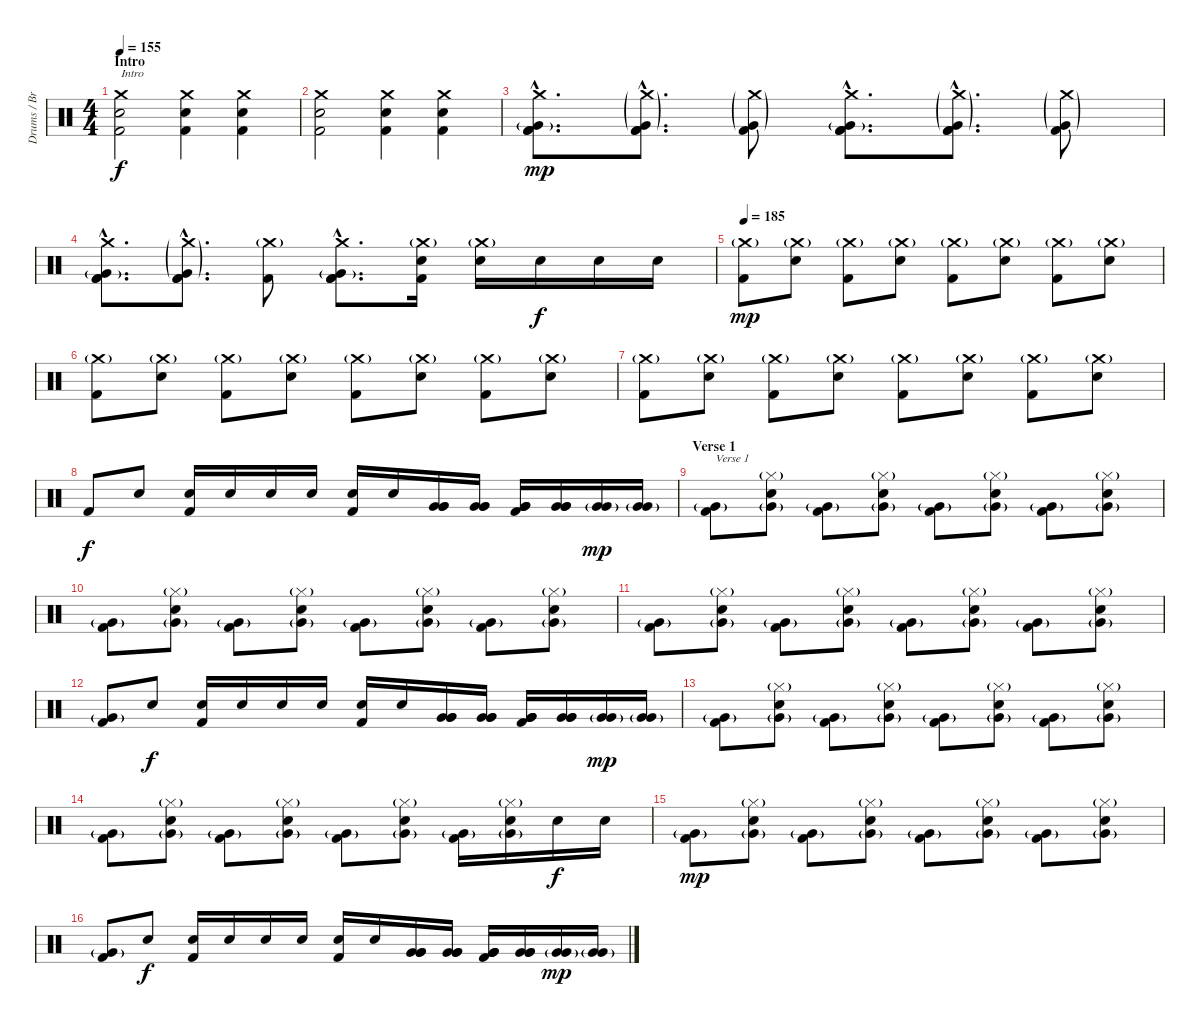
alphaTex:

\track ("Drums / Brett" "Drums / Br") {instrument percussion}
\staff {score}
\articulation defaults
\ts (4 4)
\section ("" "Intro")
\tempo 155
\clef neutral
\ks c
("Crash medium (hit)" "Snare (hit) 2" "Kick (hit) 2").2{txt "Intro" dy f} ("Crash medium (hit)" "Snare (hit) 2" "Kick (hit) 2").4 ("Crash medium (hit)" "Snare (hit) 2" "Kick (hit) 2").4 |
("Crash medium (hit)" "Snare (hit) 2" "Kick (hit) 2").2 ("Crash medium (hit)" "Snare (hit) 2" "Kick (hit) 2").4 ("Crash medium (hit)" "Snare (hit) 2" "Kick (hit) 2").4 |
("Crash medium (hit)"{hac} "Very Low Tom (hit)"{g hac} "Kick (hit) 2"{hac} "Kick (hit) 2"{hac}).8{d dy mp} ("Crash medium (hit)"{g hac} "Very Low Tom (hit)"{g hac} "Kick (hit) 2"{hac} "Kick (hit) 2"{hac}).8{d} ("Crash medium (hit)"{g} "Very Low Tom (hit)"{g} "Kick (hit) 2").8 ("Crash medium (hit)"{hac} "Very Low Tom (hit)"{g hac} "Kick (hit) 2"{hac} "Kick (hit) 2"{hac}).8{d} ("Crash medium (hit)"{g hac} "Very Low Tom (hit)"{g hac} "Kick (hit) 2"{hac} "Kick (hit) 2"{hac}).8{d} ("Crash medium (hit)"{g} "Very Low Tom (hit)"{g} "Kick (hit) 2").8 |
("Crash medium (hit)"{hac} "Very Low Tom (hit)"{g hac} "Kick (hit) 2"{hac} "Kick (hit) 2"{hac}).8{d} ("Crash medium (hit)"{g hac} "Very Low Tom (hit)"{g hac} "Kick (hit) 2"{hac} "Kick (hit) 2"{hac}).8{d} ("Crash medium (hit)"{g} "Kick (hit) 2").8 ("Crash medium (hit)"{hac} "Very Low Tom (hit)"{g hac} "Kick (hit) 2"{hac} "Kick (hit) 2"{hac}).8{d} ("Crash medium (hit)"{g} "Snare (hit) 2" "Kick (hit) 2").16 ("Crash medium (hit)"{g} "Snare (hit) 2").16 "Snare (hit) 2".16{dy f} "Snare (hit) 2".16 "Snare (hit) 2".16 |
\tempo 185
("Crash medium (hit)"{g} "Kick (hit) 2").8{dy mp} ("Crash medium (hit)"{g} "Snare (hit) 2").8 ("Crash medium (hit)"{g} "Kick (hit) 2").8 ("Crash medium (hit)"{g} "Snare (hit) 2").8 ("Crash medium (hit)"{g} "Kick (hit) 2").8 ("Crash medium (hit)"{g} "Snare (hit) 2").8 ("Crash medium (hit)"{g} "Kick (hit) 2").8 ("Crash medium (hit)"{g} "Snare (hit) 2").8 |
("Crash medium (hit)"{g} "Kick (hit) 2").8 ("Crash medium (hit)"{g} "Snare (hit) 2").8 ("Crash medium (hit)"{g} "Kick (hit) 2").8 ("Crash medium (hit)"{g} "Snare (hit) 2").8 ("Crash medium (hit)"{g} "Kick (hit) 2").8 ("Crash medium (hit)"{g} "Snare (hit) 2").8 ("Crash medium (hit)"{g} "Kick (hit) 2").8 ("Crash medium (hit)"{g} "Snare (hit) 2").8 |
("Crash medium (hit)"{g} "Kick (hit) 2").8 ("Crash medium (hit)"{g} "Snare (hit) 2").8 ("Crash medium (hit)"{g} "Kick (hit) 2").8 ("Crash medium (hit)"{g} "Snare (hit) 2").8 ("Crash medium (hit)"{g} "Kick (hit) 2").8 ("Crash medium (hit)"{g} "Snare (hit) 2").8 ("Crash medium (hit)"{g} "Kick (hit) 2").8 ("Crash medium (hit)"{g} "Snare (hit) 2").8 |
"Kick (hit) 2".8{dy f} "Snare (hit) 2".8 ("Snare (hit) 2" "Kick (hit) 2").16 "Snare (hit) 2".16 "Snare (hit) 2".16 "Snare (hit) 2".16 ("Snare (hit) 2" "Kick (hit) 2").16 "Snare (hit) 2".16 ("Very Low Tom (hit)" "Very Low Tom (hit)" "Very Low Tom (hit)").16 ("Very Low Tom (hit)" "Very Low Tom (hit)" "Very Low Tom (hit)").16 ("Very Low Tom (hit)" "Very Low Tom (hit)" "Very Low Tom (hit)" "Kick (hit) 2").16 ("Very Low Tom (hit)" "Very Low Tom (hit)" "Very Low Tom (hit)").16 ("Very Low Tom (hit)" "Very Low Tom (hit)"{g}).16{dy mp} ("Very Low Tom (hit)" "Very Low Tom (hit)"{g}).16 |
\section ("" "Verse 1")
("Very Low Tom (hit)"{g} "Kick (hit) 2").8{txt "Verse 1"} ("Very Low Tom (hit)"{g} "Hi-Hat (closed)"{g} "Snare (hit) 2").8 ("Very Low Tom (hit)"{g} "Kick (hit) 2").8 ("Very Low Tom (hit)"{g} "Hi-Hat (closed)"{g} "Snare (hit) 2").8 ("Very Low Tom (hit)"{g} "Kick (hit) 2").8 ("Very Low Tom (hit)"{g} "Hi-Hat (closed)"{g} "Snare (hit) 2").8 ("Very Low Tom (hit)"{g} "Kick (hit) 2").8 ("Very Low Tom (hit)"{g} "Hi-Hat (closed)"{g} "Snare (hit) 2").8 |
("Very Low Tom (hit)"{g} "Kick (hit) 2").8 ("Very Low Tom (hit)"{g} "Hi-Hat (closed)"{g} "Snare (hit) 2").8 ("Very Low Tom (hit)"{g} "Kick (hit) 2").8 ("Very Low Tom (hit)"{g} "Hi-Hat (closed)"{g} "Snare (hit) 2").8 ("Very Low Tom (hit)"{g} "Kick (hit) 2").8 ("Very Low Tom (hit)"{g} "Hi-Hat (closed)"{g} "Snare (hit) 2").8 ("Very Low Tom (hit)"{g} "Kick (hit) 2").8 ("Very Low Tom (hit)"{g} "Hi-Hat (closed)"{g} "Snare (hit) 2").8 |
("Very Low Tom (hit)"{g} "Kick (hit) 2").8 ("Very Low Tom (hit)"{g} "Hi-Hat (closed)"{g} "Snare (hit) 2").8 ("Very Low Tom (hit)"{g} "Kick (hit) 2").8 ("Very Low Tom (hit)"{g} "Hi-Hat (closed)"{g} "Snare (hit) 2").8 ("Very Low Tom (hit)"{g} "Kick (hit) 2").8 ("Very Low Tom (hit)"{g} "Hi-Hat (closed)"{g} "Snare (hit) 2").8 ("Very Low Tom (hit)"{g} "Kick (hit) 2").8 ("Very Low Tom (hit)"{g} "Hi-Hat (closed)"{g} "Snare (hit) 2").8 |
("Very Low Tom (hit)"{g} "Kick (hit) 2").8 "Snare (hit) 2".8{dy f} ("Snare (hit) 2" "Kick (hit) 2").16 "Snare (hit) 2".16 "Snare (hit) 2".16 "Snare (hit) 2".16 ("Snare (hit) 2" "Kick (hit) 2").16 "Snare (hit) 2".16 ("Very Low Tom (hit)" "Very Low Tom (hit)" "Very Low Tom (hit)").16 ("Very Low Tom (hit)" "Very Low Tom (hit)" "Very Low Tom (hit)").16 ("Very Low Tom (hit)" "Very Low Tom (hit)" "Very Low Tom (hit)" "Kick (hit) 2").16 ("Very Low Tom (hit)" "Very Low Tom (hit)" "Very Low Tom (hit)").16 ("Very Low Tom (hit)" "Very Low Tom (hit)"{g}).16{dy mp} ("Very Low Tom (hit)" "Very Low Tom (hit)"{g}).16 |
("Very Low Tom (hit)"{g} "Kick (hit) 2").8 ("Very Low Tom (hit)"{g} "Hi-Hat (closed)"{g} "Snare (hit) 2").8 ("Very Low Tom (hit)"{g} "Kick (hit) 2").8 ("Very Low Tom (hit)"{g} "Hi-Hat (closed)"{g} "Snare (hit) 2").8 ("Very Low Tom (hit)"{g} "Kick (hit) 2").8 ("Very Low Tom (hit)"{g} "Hi-Hat (closed)"{g} "Snare (hit) 2").8 ("Very Low Tom (hit)"{g} "Kick (hit) 2").8 ("Very Low Tom (hit)"{g} "Hi-Hat (closed)"{g} "Snare (hit) 2").8 |
("Very Low Tom (hit)"{g} "Kick (hit) 2").8 ("Very Low Tom (hit)"{g} "Hi-Hat (closed)"{g} "Snare (hit) 2").8 ("Very Low Tom (hit)"{g} "Kick (hit) 2").8 ("Very Low Tom (hit)"{g} "Hi-Hat (closed)"{g} "Snare (hit) 2").8 ("Very Low Tom (hit)"{g} "Kick (hit) 2").8 ("Very Low Tom (hit)"{g} "Hi-Hat (closed)"{g} "Snare (hit) 2").8 ("Very Low Tom (hit)"{g} "Kick (hit) 2").16 ("Very Low Tom (hit)"{g} "Hi-Hat (closed)"{g} "Snare (hit) 2").16 "Snare (hit) 2".16{dy f} "Snare (hit) 2".16 |
("Very Low Tom (hit)"{g} "Kick (hit) 2").8{dy mp} ("Very Low Tom (hit)"{g} "Hi-Hat (closed)"{g} "Snare (hit) 2").8 ("Very Low Tom (hit)"{g} "Kick (hit) 2").8 ("Very Low Tom (hit)"{g} "Hi-Hat (closed)"{g} "Snare (hit) 2").8 ("Very Low Tom (hit)"{g} "Kick (hit) 2").8 ("Very Low Tom (hit)"{g} "Hi-Hat (closed)"{g} "Snare (hit) 2").8 ("Very Low Tom (hit)"{g} "Kick (hit) 2").8 ("Very Low Tom (hit)"{g} "Hi-Hat (closed)"{g} "Snare (hit) 2").8 |
("Very Low Tom (hit)"{g} "Kick (hit) 2").8 "Snare (hit) 2".8{dy f} ("Snare (hit) 2" "Kick (hit) 2").16 "Snare (hit) 2".16 "Snare (hit) 2".16 "Snare (hit) 2".16 ("Snare (hit) 2" "Kick (hit) 2").16 "Snare (hit) 2".16 ("Very Low Tom (hit)" "Very Low Tom (hit)" "Very Low Tom (hit)").16 ("Very Low Tom (hit)" "Very Low Tom (hit)" "Very Low Tom (hit)").16 ("Very Low Tom (hit)" "Very Low Tom (hit)" "Very Low Tom (hit)" "Kick (hit) 2").16 ("Very Low Tom (hit)" "Very Low Tom (hit)" "Very Low Tom (hit)").16 ("Very Low Tom (hit)" "Very Low Tom (hit)"{g}).16{dy mp} ("Very Low Tom (hit)" "Very Low Tom (hit)"{g}).16
